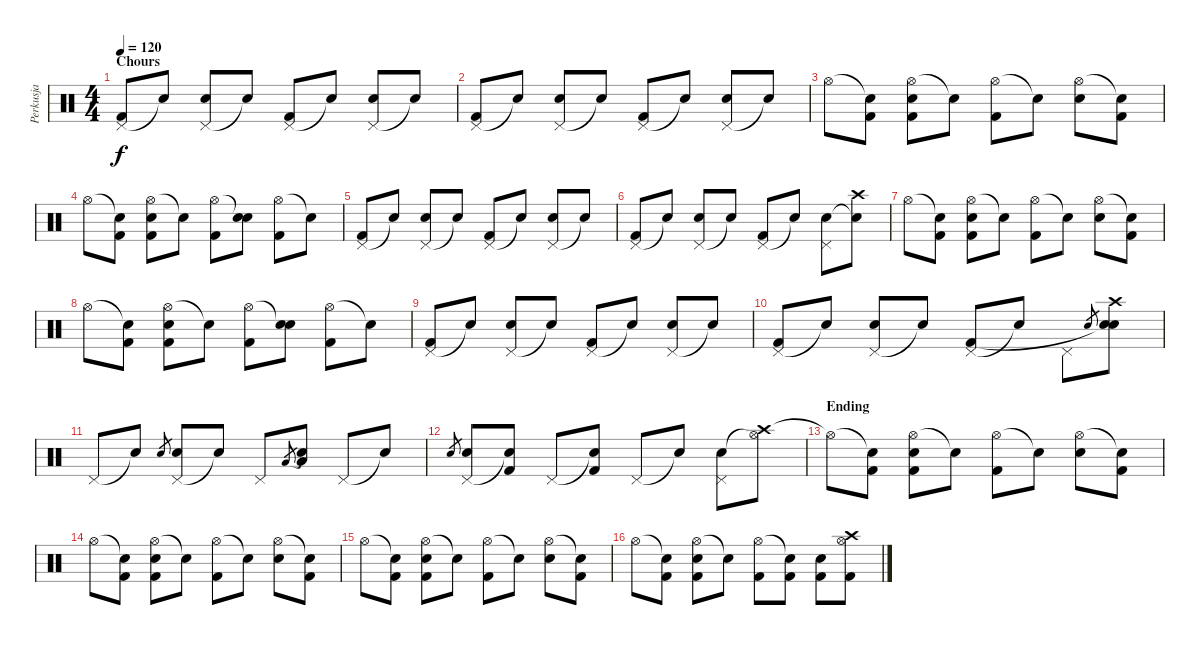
\track ("Perkusja" "Perkusja") {instrument percussion}
\staff {score}
\articulation defaults
\ts (4 4)
\section ("" "Chours")
\tempo 120
\clef neutral
\ks c
("Pedal Hi-Hat (hit)" "Kick (hit) 2").8{dy f} "Snare (hit)"{t}.8 ("Pedal Hi-Hat (hit)" "Electric Snare (hit)").8 "Snare (hit)"{t}.8 ("Pedal Hi-Hat (hit)" "Kick (hit) 2").8 "Snare (hit)"{t}.8 ("Pedal Hi-Hat (hit)" "Electric Snare (hit)").8 "Snare (hit)"{t}.8 |
("Pedal Hi-Hat (hit)" "Kick (hit) 2").8 "Snare (hit)"{t}.8 ("Pedal Hi-Hat (hit)" "Electric Snare (hit)").8 "Snare (hit)"{t}.8 ("Pedal Hi-Hat (hit)" "Kick (hit) 2").8 "Snare (hit)"{t}.8 ("Pedal Hi-Hat (hit)" "Electric Snare (hit)").8 "Snare (hit)"{t}.8 |
"Hi-Hat (open)".8 ("Snare (hit)"{t} "Kick (hit) 2").8 ("Hi-Hat (open)" "Electric Snare (hit)" "Kick (hit) 2").8 "Snare (hit)"{t}.8 ("Hi-Hat (open)" "Kick (hit) 2").8 "Snare (hit)"{t}.8 ("Hi-Hat (open)" "Electric Snare (hit)").8 ("Snare (hit)"{t} "Kick (hit) 2").8 |
"Hi-Hat (open)".8 ("Snare (hit)"{t} "Kick (hit) 2").8 ("Hi-Hat (open)" "Electric Snare (hit)" "Kick (hit) 2").8 "Snare (hit)"{t}.8 ("Hi-Hat (open)" "Kick (hit) 2").8 ("Snare (hit)"{t} "Electric Snare (hit)").8 ("Hi-Hat (open)" "Kick (hit) 2").8 "Snare (hit)"{t}.8 |
("Pedal Hi-Hat (hit)" "Kick (hit) 2").8 "Snare (hit)"{t}.8 ("Pedal Hi-Hat (hit)" "Electric Snare (hit)").8 "Snare (hit)"{t}.8 ("Pedal Hi-Hat (hit)" "Kick (hit) 2").8 "Snare (hit)"{t}.8 ("Pedal Hi-Hat (hit)" "Electric Snare (hit)").8 "Snare (hit)"{t}.8 |
("Pedal Hi-Hat (hit)" "Kick (hit) 2").8 "Snare (hit)"{t}.8 ("Pedal Hi-Hat (hit)" "Electric Snare (hit)").8 "Snare (hit)"{t}.8 ("Pedal Hi-Hat (hit)" "Kick (hit) 2").8 "Snare (hit)"{t}.8 ("Pedal Hi-Hat (hit)" "Electric Snare (hit)").8 ("Crash high (hit)" "Snare (hit)"{t}).8 |
"Hi-Hat (open)".8 ("Snare (hit)"{t} "Kick (hit) 2").8 ("Hi-Hat (open)" "Electric Snare (hit)" "Kick (hit) 2").8 "Snare (hit)"{t}.8 ("Hi-Hat (open)" "Kick (hit) 2").8 "Snare (hit)"{t}.8 ("Hi-Hat (open)" "Electric Snare (hit)").8 ("Snare (hit)"{t} "Kick (hit) 2").8 |
"Hi-Hat (open)".8 ("Snare (hit)"{t} "Kick (hit) 2").8 ("Hi-Hat (open)" "Electric Snare (hit)" "Kick (hit) 2").8 "Snare (hit)"{t}.8 ("Hi-Hat (open)" "Kick (hit) 2").8 ("Snare (hit)"{t} "Electric Snare (hit)").8 ("Hi-Hat (open)" "Kick (hit) 2").8 "Snare (hit)"{t}.8 |
("Pedal Hi-Hat (hit)" "Kick (hit) 2").8 "Snare (hit)"{t}.8 ("Pedal Hi-Hat (hit)" "Electric Snare (hit)").8 "Snare (hit)"{t}.8 ("Pedal Hi-Hat (hit)" "Kick (hit) 2").8 "Snare (hit)"{t}.8 ("Pedal Hi-Hat (hit)" "Electric Snare (hit)").8 "Snare (hit)"{t}.8 |
("Pedal Hi-Hat (hit)" "Kick (hit) 2").8 "Snare (hit)"{t}.8 ("Pedal Hi-Hat (hit)" "Electric Snare (hit)").8 "Snare (hit)"{t}.8 ("Pedal Hi-Hat (hit)" "Kick (hit) 2").8 "Snare (hit)"{t}.8 "Pedal Hi-Hat (hit)".8 "Electric Snare (hit)".8{gr} ("Crash high (hit)" "Snare (hit)"{t} "Electric Snare (hit)").8 |
"Pedal Hi-Hat (hit)".8 "Snare (hit)"{t}.8 "Electric Snare (hit)".8{gr} ("Pedal Hi-Hat (hit)" "Electric Snare (hit)").8 "Snare (hit)"{t}.8 "Pedal Hi-Hat (hit)".8 "Low Tom (hit)".8{gr} ("Snare (hit)"{t} "Low Tom (hit)").8 "Pedal Hi-Hat (hit)".8 "Snare (hit)"{t}.8 |
"Electric Snare (hit)".8{gr} ("Pedal Hi-Hat (hit)" "Electric Snare (hit)").8 ("Snare (hit)"{t} "Kick (hit) 2").8 "Pedal Hi-Hat (hit)".8 ("Snare (hit)"{t} "Kick (hit) 2").8 "Pedal Hi-Hat (hit)".8 "Snare (hit)"{t}.8 ("Pedal Hi-Hat (hit)" "Electric Snare (hit)").8 ("Crash high (hit)" "Hi-Hat (open)"{t}).8 |
\section ("" "Ending")
"Hi-Hat (open)"{t}.8 ("Snare (hit)"{t} "Kick (hit) 2").8 ("Hi-Hat (open)" "Electric Snare (hit)" "Kick (hit) 2").8 "Snare (hit)"{t}.8 ("Hi-Hat (open)" "Kick (hit) 2").8 "Snare (hit)"{t}.8 ("Hi-Hat (open)" "Electric Snare (hit)").8 ("Snare (hit)"{t} "Kick (hit) 2").8 |
"Hi-Hat (open)".8 ("Snare (hit)"{t} "Kick (hit) 2").8 ("Hi-Hat (open)" "Electric Snare (hit)" "Kick (hit) 2").8 "Snare (hit)"{t}.8 ("Hi-Hat (open)" "Kick (hit) 2").8 "Snare (hit)"{t}.8 ("Hi-Hat (open)" "Electric Snare (hit)").8 ("Snare (hit)"{t} "Kick (hit) 2").8 |
"Hi-Hat (open)".8 ("Snare (hit)"{t} "Kick (hit) 2").8 ("Hi-Hat (open)" "Electric Snare (hit)" "Kick (hit) 2").8 "Snare (hit)"{t}.8 ("Hi-Hat (open)" "Kick (hit) 2").8 "Snare (hit)"{t}.8 ("Hi-Hat (open)" "Electric Snare (hit)").8 ("Snare (hit)"{t} "Kick (hit) 2").8 |
"Hi-Hat (open)".8 ("Snare (hit)"{t} "Kick (hit) 2").8 ("Hi-Hat (open)" "Electric Snare (hit)" "Kick (hit) 2").8 "Snare (hit)"{t}.8 ("Hi-Hat (open)" "Kick (hit) 2").8 ("Snare (hit)"{t} "Kick (hit) 2").8 ("Electric Snare (hit)" "Kick (hit) 2").8 ("Crash high (hit)" "Hi-Hat (open)" "Kick (hit) 2").8
